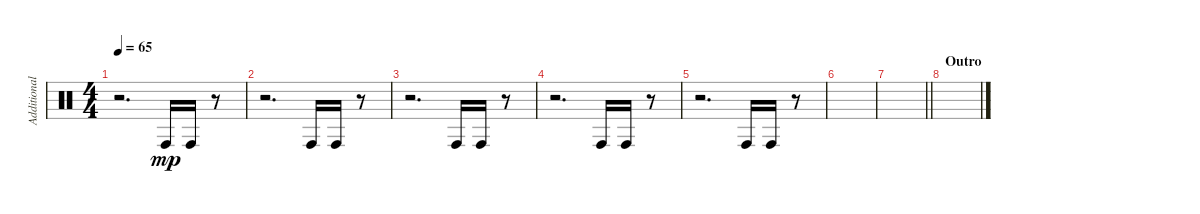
\track ("Additional Percussions" "Additional") {instrument percussion}
\staff {score}
\articulation defaults
\ts (4 4)
\tempo 65
\clef neutral
\ks c
r.2{d dy mp} "Conga high (hit)".16 "Conga high (hit)".16 r.8 |
r.2{d} "Conga high (hit)".16 "Conga high (hit)".16 r.8 |
r.2{d} "Conga high (hit)".16 "Conga high (hit)".16 r.8 |
r.2{d} "Conga high (hit)".16 "Conga high (hit)".16 r.8 |
r.2{d} "Conga high (hit)".16 "Conga high (hit)".16 r.8 |
|
\barLineRight lightlight
|
\section ("" "Outro")
